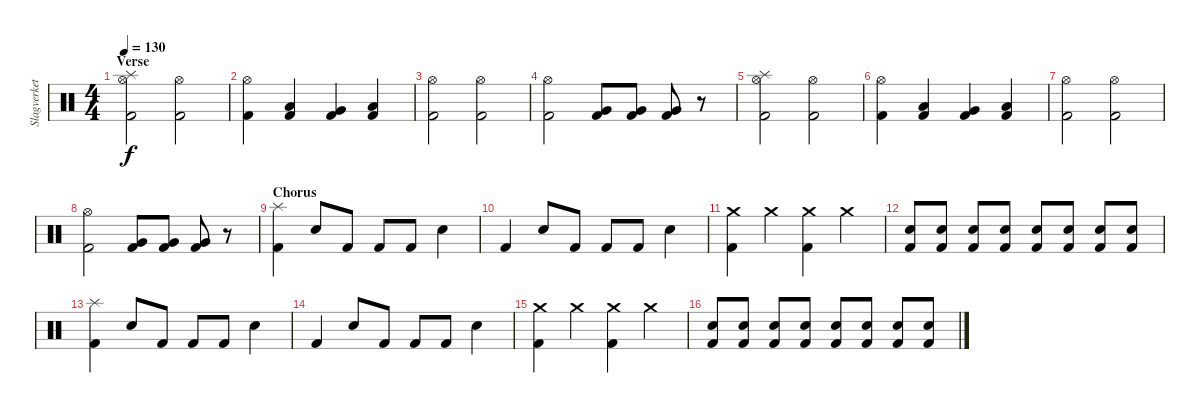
\track ("Slagverket !!" "Slagverket") {instrument percussion}
\staff {score}
\articulation defaults
\ts (4 4)
\section ("" "Verse")
\tempo 130
\clef neutral
\ks c
("Hi-Hat (open)" "Splash (hit)" "Kick (hit) 2").2{dy f} ("Hi-Hat (open)" "Kick (hit) 2").2 |
("Hi-Hat (open)" "Kick (hit) 2").4 ("Low Tom (hit)" "Kick (hit) 2").4 ("Very Low Tom (hit)" "Kick (hit) 2").4 ("Low Floor Tom (hit)" "Kick (hit) 2").4 |
("Hi-Hat (open)" "Kick (hit) 2").2 ("Hi-Hat (open)" "Kick (hit) 2").2 |
("Hi-Hat (open)" "Kick (hit) 2").2 ("Very Low Tom (hit)" "Kick (hit) 2").8 ("Very Low Tom (hit)" "Kick (hit) 2").8 ("Very Low Tom (hit)" "Kick (hit) 2").8 r.8 |
("Hi-Hat (open)" "Splash (hit)" "Kick (hit) 2").2 ("Hi-Hat (open)" "Kick (hit) 2").2 |
("Hi-Hat (open)" "Kick (hit) 2").4 ("Low Tom (hit)" "Kick (hit) 2").4 ("Very Low Tom (hit)" "Kick (hit) 2").4 ("Low Floor Tom (hit)" "Kick (hit) 2").4 |
("Hi-Hat (open)" "Kick (hit) 2").2 ("Hi-Hat (open)" "Kick (hit) 2").2 |
("Hi-Hat (open)" "Kick (hit) 2").2 ("Very Low Tom (hit)" "Kick (hit) 2").8 ("Very Low Tom (hit)" "Kick (hit) 2").8 ("Very Low Tom (hit)" "Kick (hit) 2").8 r.8 |
\section ("" "Chorus")
("Splash (hit)" "Kick (hit) 2").4 "Snare (hit) 2".8 "Kick (hit) 2".8 "Kick (hit) 2".8 "Kick (hit) 2".8 "Snare (hit) 2".4 |
"Kick (hit) 2".4 "Snare (hit) 2".8 "Kick (hit) 2".8 "Kick (hit) 2".8 "Kick (hit) 2".8 "Snare (hit) 2".4 |
("Crash medium (hit)" "Kick (hit) 2").4 "Crash medium (hit)".4 ("Crash medium (hit)" "Kick (hit) 2").4 "Crash medium (hit)".4 |
("Snare (hit) 2" "Kick (hit) 2").8 ("Snare (hit) 2" "Kick (hit) 2").8 ("Snare (hit) 2" "Kick (hit) 2").8 ("Snare (hit) 2" "Kick (hit) 2").8 ("Snare (hit) 2" "Kick (hit) 2").8 ("Snare (hit) 2" "Kick (hit) 2").8 ("Snare (hit) 2" "Kick (hit) 2").8 ("Snare (hit) 2" "Kick (hit) 2").8 |
("Splash (hit)" "Kick (hit) 2").4 "Snare (hit) 2".8 "Kick (hit) 2".8 "Kick (hit) 2".8 "Kick (hit) 2".8 "Snare (hit) 2".4 |
"Kick (hit) 2".4 "Snare (hit) 2".8 "Kick (hit) 2".8 "Kick (hit) 2".8 "Kick (hit) 2".8 "Snare (hit) 2".4 |
("Crash medium (hit)" "Kick (hit) 2").4 "Crash medium (hit)".4 ("Crash medium (hit)" "Kick (hit) 2").4 "Crash medium (hit)".4 |
("Snare (hit) 2" "Kick (hit) 2").8 ("Snare (hit) 2" "Kick (hit) 2").8 ("Snare (hit) 2" "Kick (hit) 2").8 ("Snare (hit) 2" "Kick (hit) 2").8 ("Snare (hit) 2" "Kick (hit) 2").8 ("Snare (hit) 2" "Kick (hit) 2").8 ("Snare (hit) 2" "Kick (hit) 2").8 ("Snare (hit) 2" "Kick (hit) 2").8
